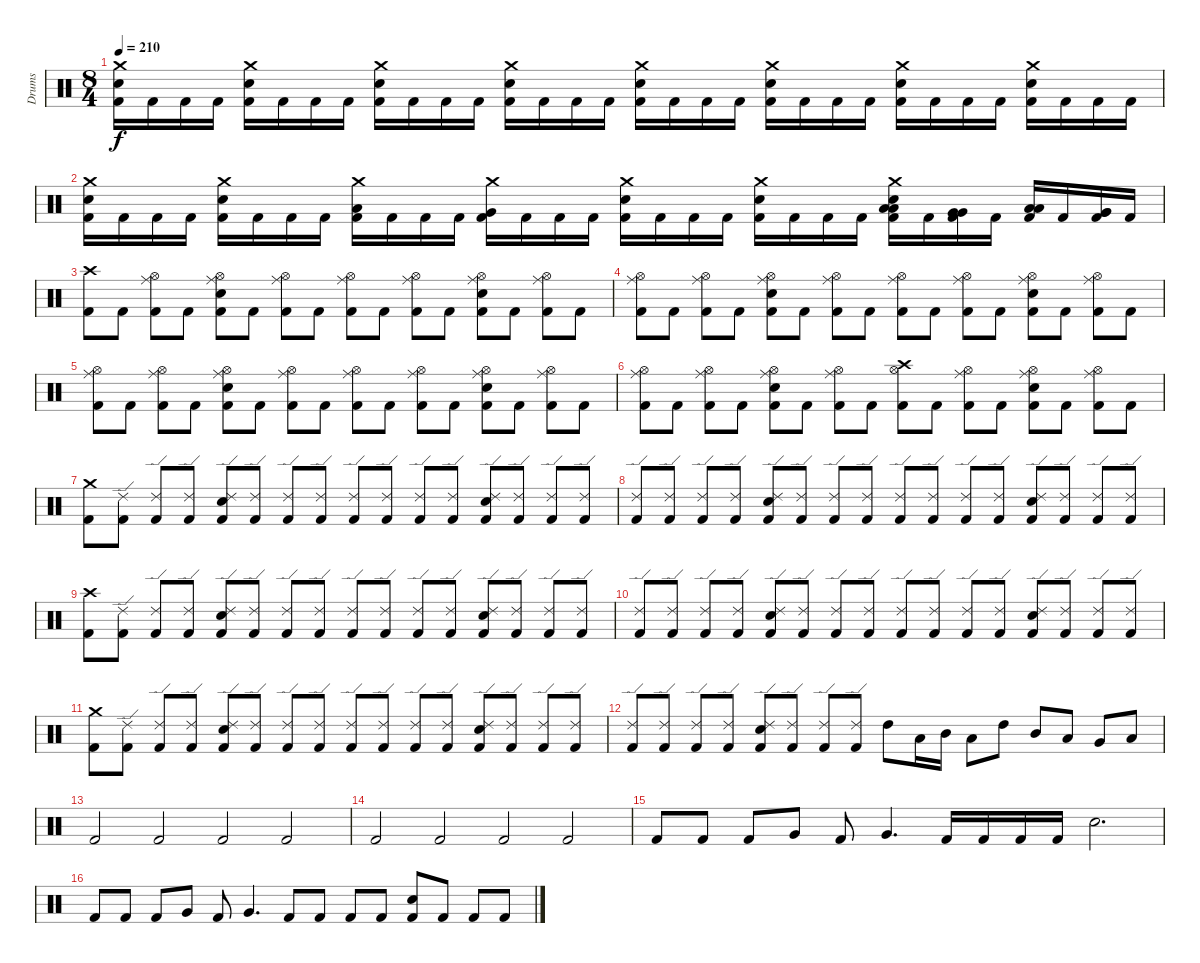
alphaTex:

\track ("Drums" "Drums") {instrument percussion}
\staff {score}
\articulation defaults
\ts (8 4)
\tempo 210
\clef neutral
\ks c
("Crash medium (hit)" "Electric Snare (hit)" "Kick (hit) 2").16{dy f} "Kick (hit) 2".16 "Kick (hit) 2".16 "Kick (hit) 2".16 ("Crash medium (hit)" "Electric Snare (hit)" "Kick (hit) 2").16 "Kick (hit) 2".16 "Kick (hit) 2".16 "Kick (hit) 2".16 ("Crash medium (hit)" "Electric Snare (hit)" "Kick (hit) 2").16 "Kick (hit) 2".16 "Kick (hit) 2".16 "Kick (hit) 2".16 ("Crash medium (hit)" "Electric Snare (hit)" "Kick (hit) 2").16 "Kick (hit) 2".16 "Kick (hit) 2".16 "Kick (hit) 2".16 ("Crash medium (hit)" "Electric Snare (hit)" "Kick (hit) 2").16 "Kick (hit) 2".16 "Kick (hit) 2".16 "Kick (hit) 2".16 ("Crash medium (hit)" "Electric Snare (hit)" "Kick (hit) 2").16 "Kick (hit) 2".16 "Kick (hit) 2".16 "Kick (hit) 2".16 ("Crash medium (hit)" "Electric Snare (hit)" "Kick (hit) 2").16 "Kick (hit) 2".16 "Kick (hit) 2".16 "Kick (hit) 2".16 ("Crash medium (hit)" "Electric Snare (hit)" "Kick (hit) 2").16 "Kick (hit) 2".16 "Kick (hit) 2".16 "Kick (hit) 2".16 |
("Crash medium (hit)" "Electric Snare (hit)" "Kick (hit) 2").16 "Kick (hit) 2".16 "Kick (hit) 2".16 "Kick (hit) 2".16 ("Crash medium (hit)" "Electric Snare (hit)" "Kick (hit) 2").16 "Kick (hit) 2".16 "Kick (hit) 2".16 "Kick (hit) 2".16 ("Crash medium (hit)" "Low Tom (hit)" "Kick (hit) 2").16 "Kick (hit) 2".16 "Kick (hit) 2".16 "Kick (hit) 2".16 ("Crash medium (hit)" "Very Low Tom (hit)" "Kick (hit) 2").16 "Kick (hit) 2".16 "Kick (hit) 2".16 "Kick (hit) 2".16 ("Crash medium (hit)" "Electric Snare (hit)" "Kick (hit) 2").16 "Kick (hit) 2".16 "Kick (hit) 2".16 "Kick (hit) 2".16 ("Crash medium (hit)" "Electric Snare (hit)" "Kick (hit) 2").16 "Kick (hit) 2".16 "Kick (hit) 2".16 "Kick (hit) 2".16 ("Crash medium (hit)" "Electric Snare (hit)" "Low Tom (hit)" "Low Tom (hit)" "Kick (hit) 2").16 "Kick (hit) 2".16 ("Very Low Tom (hit)" "Very Low Tom (hit)" "Kick (hit) 2").16 "Kick (hit) 2".16 ("Low Floor Tom (hit)" "Low Floor Tom (hit)" "Kick (hit) 2").16 "Kick (hit) 2".16 ("Very Low Tom (hit)" "Very Low Tom (hit)" "Kick (hit) 2").16 "Kick (hit) 2".16 |
("Crash high (hit)" "Kick (hit) 2").8 "Kick (hit) 2".8 ("Ride (middle)" "Hi-Hat (open)" "Kick (hit) 2").8 "Kick (hit) 2".8 ("Ride (middle)" "Hi-Hat (open)" "Electric Snare (hit)" "Kick (hit) 2").8 "Kick (hit) 2".8 ("Ride (middle)" "Hi-Hat (open)" "Kick (hit) 2").8 "Kick (hit) 2".8 ("Ride (middle)" "Hi-Hat (open)" "Kick (hit) 2").8 "Kick (hit) 2".8 ("Ride (middle)" "Hi-Hat (open)" "Kick (hit) 2").8 "Kick (hit) 2".8 ("Ride (middle)" "Hi-Hat (open)" "Electric Snare (hit)" "Kick (hit) 2").8 "Kick (hit) 2".8 ("Ride (middle)" "Hi-Hat (open)" "Kick (hit) 2").8 "Kick (hit) 2".8 |
("Ride (middle)" "Hi-Hat (open)" "Kick (hit) 2").8 "Kick (hit) 2".8 ("Ride (middle)" "Hi-Hat (open)" "Kick (hit) 2").8 "Kick (hit) 2".8 ("Ride (middle)" "Hi-Hat (open)" "Electric Snare (hit)" "Kick (hit) 2").8 "Kick (hit) 2".8 ("Ride (middle)" "Hi-Hat (open)" "Kick (hit) 2").8 "Kick (hit) 2".8 ("Ride (middle)" "Hi-Hat (open)" "Kick (hit) 2").8 "Kick (hit) 2".8 ("Ride (middle)" "Hi-Hat (open)" "Kick (hit) 2").8 "Kick (hit) 2".8 ("Ride (middle)" "Hi-Hat (open)" "Electric Snare (hit)" "Kick (hit) 2").8 "Kick (hit) 2".8 ("Ride (middle)" "Hi-Hat (open)" "Kick (hit) 2").8 "Kick (hit) 2".8 |
("Ride (middle)" "Hi-Hat (open)" "Kick (hit) 2").8 "Kick (hit) 2".8 ("Ride (middle)" "Hi-Hat (open)" "Kick (hit) 2").8 "Kick (hit) 2".8 ("Ride (middle)" "Hi-Hat (open)" "Electric Snare (hit)" "Kick (hit) 2").8 "Kick (hit) 2".8 ("Ride (middle)" "Hi-Hat (open)" "Kick (hit) 2").8 "Kick (hit) 2".8 ("Ride (middle)" "Hi-Hat (open)" "Kick (hit) 2").8 "Kick (hit) 2".8 ("Ride (middle)" "Hi-Hat (open)" "Kick (hit) 2").8 "Kick (hit) 2".8 ("Ride (middle)" "Hi-Hat (open)" "Electric Snare (hit)" "Kick (hit) 2").8 "Kick (hit) 2".8 ("Ride (middle)" "Hi-Hat (open)" "Kick (hit) 2").8 "Kick (hit) 2".8 |
("Ride (middle)" "Hi-Hat (open)" "Kick (hit) 2").8 "Kick (hit) 2".8 ("Ride (middle)" "Hi-Hat (open)" "Kick (hit) 2").8 "Kick (hit) 2".8 ("Ride (middle)" "Hi-Hat (open)" "Electric Snare (hit)" "Kick (hit) 2").8 "Kick (hit) 2".8 ("Ride (middle)" "Hi-Hat (open)" "Kick (hit) 2").8 "Kick (hit) 2".8 ("Crash high (hit)" "Hi-Hat (open)" "Kick (hit) 2").8 "Kick (hit) 2".8 ("Ride (middle)" "Hi-Hat (open)" "Kick (hit) 2").8 "Kick (hit) 2".8 ("Ride (middle)" "Hi-Hat (open)" "Electric Snare (hit)" "Kick (hit) 2").8 "Kick (hit) 2".8 ("Ride (middle)" "Hi-Hat (open)" "Kick (hit) 2").8 "Kick (hit) 2".8 |
("Crash medium (hit)" "Kick (hit) 2").8 ("Ride (edge) 2" "Kick (hit) 2").8 ("Ride (edge) 2" "Kick (hit) 2").8 ("Ride (edge) 2" "Kick (hit) 2").8 ("Ride (edge) 2" "Electric Snare (hit)" "Kick (hit) 2").8 ("Ride (edge) 2" "Kick (hit) 2").8 ("Ride (edge) 2" "Kick (hit) 2").8 ("Ride (edge) 2" "Kick (hit) 2").8 ("Ride (edge) 2" "Kick (hit) 2").8 ("Ride (edge) 2" "Kick (hit) 2").8 ("Ride (edge) 2" "Kick (hit) 2").8 ("Ride (edge) 2" "Kick (hit) 2").8 ("Ride (edge) 2" "Electric Snare (hit)" "Kick (hit) 2").8 ("Ride (edge) 2" "Kick (hit) 2").8 ("Ride (edge) 2" "Kick (hit) 2").8 ("Ride (edge) 2" "Kick (hit) 2").8 |
("Ride (edge) 2" "Kick (hit) 2").8 ("Ride (edge) 2" "Kick (hit) 2").8 ("Ride (edge) 2" "Kick (hit) 2").8 ("Ride (edge) 2" "Kick (hit) 2").8 ("Ride (edge) 2" "Electric Snare (hit)" "Kick (hit) 2").8 ("Ride (edge) 2" "Kick (hit) 2").8 ("Ride (edge) 2" "Kick (hit) 2").8 ("Ride (edge) 2" "Kick (hit) 2").8 ("Ride (edge) 2" "Kick (hit) 2").8 ("Ride (edge) 2" "Kick (hit) 2").8 ("Ride (edge) 2" "Kick (hit) 2").8 ("Ride (edge) 2" "Kick (hit) 2").8 ("Ride (edge) 2" "Electric Snare (hit)" "Kick (hit) 2").8 ("Ride (edge) 2" "Kick (hit) 2").8 ("Ride (edge) 2" "Kick (hit) 2").8 ("Ride (edge) 2" "Kick (hit) 2").8 |
("Crash high (hit)" "Kick (hit) 2").8 ("Ride (edge) 2" "Kick (hit) 2").8 ("Ride (edge) 2" "Kick (hit) 2").8 ("Ride (edge) 2" "Kick (hit) 2").8 ("Ride (edge) 2" "Electric Snare (hit)" "Kick (hit) 2").8 ("Ride (edge) 2" "Kick (hit) 2").8 ("Ride (edge) 2" "Kick (hit) 2").8 ("Ride (edge) 2" "Kick (hit) 2").8 ("Ride (edge) 2" "Kick (hit) 2").8 ("Ride (edge) 2" "Kick (hit) 2").8 ("Ride (edge) 2" "Kick (hit) 2").8 ("Ride (edge) 2" "Kick (hit) 2").8 ("Ride (edge) 2" "Electric Snare (hit)" "Kick (hit) 2").8 ("Ride (edge) 2" "Kick (hit) 2").8 ("Ride (edge) 2" "Kick (hit) 2").8 ("Ride (edge) 2" "Kick (hit) 2").8 |
("Ride (edge) 2" "Kick (hit) 2").8 ("Ride (edge) 2" "Kick (hit) 2").8 ("Ride (edge) 2" "Kick (hit) 2").8 ("Ride (edge) 2" "Kick (hit) 2").8 ("Ride (edge) 2" "Electric Snare (hit)" "Kick (hit) 2").8 ("Ride (edge) 2" "Kick (hit) 2").8 ("Ride (edge) 2" "Kick (hit) 2").8 ("Ride (edge) 2" "Kick (hit) 2").8 ("Ride (edge) 2" "Kick (hit) 2").8 ("Ride (edge) 2" "Kick (hit) 2").8 ("Ride (edge) 2" "Kick (hit) 2").8 ("Ride (edge) 2" "Kick (hit) 2").8 ("Ride (edge) 2" "Electric Snare (hit)" "Kick (hit) 2").8 ("Ride (edge) 2" "Kick (hit) 2").8 ("Ride (edge) 2" "Kick (hit) 2").8 ("Ride (edge) 2" "Kick (hit) 2").8 |
("Crash medium (hit)" "Kick (hit) 2").8 ("Ride (edge) 2" "Kick (hit) 2").8 ("Ride (edge) 2" "Kick (hit) 2").8 ("Ride (edge) 2" "Kick (hit) 2").8 ("Ride (edge) 2" "Electric Snare (hit)" "Kick (hit) 2").8 ("Ride (edge) 2" "Kick (hit) 2").8 ("Ride (edge) 2" "Kick (hit) 2").8 ("Ride (edge) 2" "Kick (hit) 2").8 ("Ride (edge) 2" "Kick (hit) 2").8 ("Ride (edge) 2" "Kick (hit) 2").8 ("Ride (edge) 2" "Kick (hit) 2").8 ("Ride (edge) 2" "Kick (hit) 2").8 ("Ride (edge) 2" "Electric Snare (hit)" "Kick (hit) 2").8 ("Ride (edge) 2" "Kick (hit) 2").8 ("Ride (edge) 2" "Kick (hit) 2").8 ("Ride (edge) 2" "Kick (hit) 2").8 |
("Ride (edge) 2" "Kick (hit) 2").8 ("Ride (edge) 2" "Kick (hit) 2").8 ("Ride (edge) 2" "Kick (hit) 2").8 ("Ride (edge) 2" "Kick (hit) 2").8 ("Ride (edge) 2" "Electric Snare (hit)" "Kick (hit) 2").8 ("Ride (edge) 2" "Kick (hit) 2").8 ("Ride (edge) 2" "Kick (hit) 2").8 ("Ride (edge) 2" "Kick (hit) 2").8 "High Tom (hit)".8 "Low Tom (hit)".16 "Mid Tom (hit)".16 "Low Tom (hit)".8 "High Tom (hit)".8 "Mid Tom (hit)".8 "Low Tom (hit)".8 "Very Low Tom (hit)".8 "Low Floor Tom (hit)".8 |
"Kick (hit) 2".2 "Kick (hit) 2".2 "Kick (hit) 2".2 "Kick (hit) 2".2 |
"Kick (hit) 2".2 "Kick (hit) 2".2 "Kick (hit) 2".2 "Kick (hit) 2".2 |
"Kick (hit) 2".8 "Kick (hit) 2".8 "Kick (hit) 2".8 "Very Low Tom (hit)".8 "Kick (hit) 2".8 "Very Low Tom (hit)".4{d} "Kick (hit) 2".16 "Kick (hit) 2".16 "Kick (hit) 2".16 "Kick (hit) 2".16 "Electric Snare (hit)".2{d} |
"Kick (hit) 2".8 "Kick (hit) 2".8 "Kick (hit) 2".8 "Very Low Tom (hit)".8 "Kick (hit) 2".8 "Very Low Tom (hit)".4{d} "Kick (hit) 2".8 "Kick (hit) 2".8 "Kick (hit) 2".8 "Kick (hit) 2".8 ("Electric Snare (hit)" "Kick (hit) 2").8 "Kick (hit) 2".8 "Kick (hit) 2".8 "Kick (hit) 2".8
